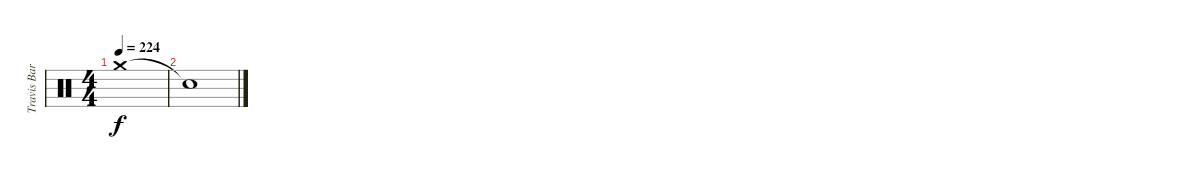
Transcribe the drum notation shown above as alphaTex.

\track ("Travis Barker (Drums)" "Travis Bar") {instrument percussion}
\staff {score}
\articulation defaults
\ts (4 4)
\tempo 224
\clef neutral
\ks c "Crash medium (hit)".1{dy f}
|
"Snare (hit)"{t}.1
